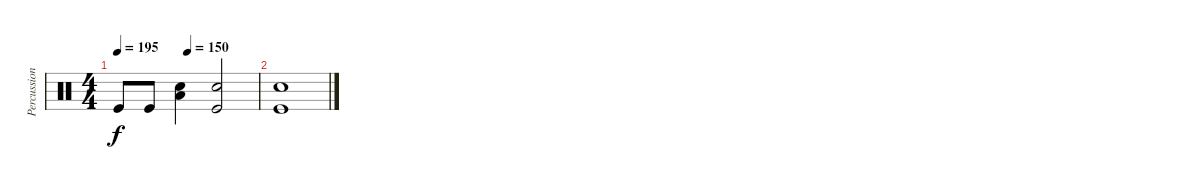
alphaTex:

\track ("Percussion" "Percussion") {instrument percussion}
\staff {score}
\articulation defaults
\ts (4 4)
\tempo 195
\tempo (150 0.5)
\clef neutral
\ks c "Kick (hit)".8{dy f} "Kick (hit)".8
("Low Tom (hit)" "Snare (hit) 2").4 ("Snare (hit) 2" "Kick (hit)").2 |
("Snare (hit) 2" "Kick (hit)").1
